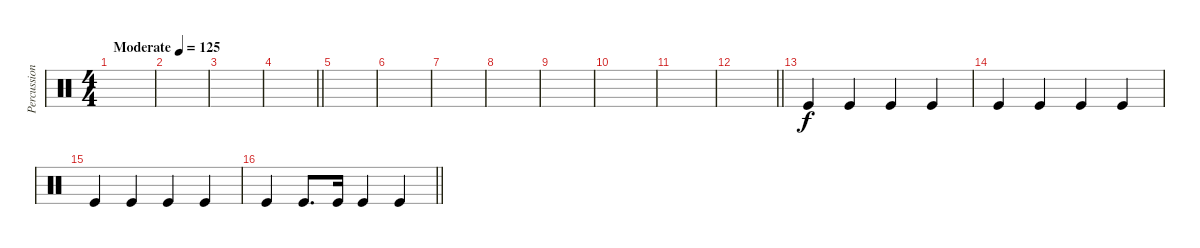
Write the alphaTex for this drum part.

\track ("Percussion" "Percussion") {instrument percussion}
\staff {score}
\articulation defaults
\ts (4 4)
\tempo (125 "Moderate")
\clef neutral
\ks c
|
|
|
\barLineRight lightlight
|
|
|
|
|
|
|
|
\barLineRight lightlight
|
"Kick (hit)".4 "Kick (hit)".4 "Kick (hit)".4 "Kick (hit)".4 |
"Kick (hit)".4 "Kick (hit)".4 "Kick (hit)".4 "Kick (hit)".4 |
"Kick (hit)".4 "Kick (hit)".4 "Kick (hit)".4 "Kick (hit)".4 |
\barLineRight lightlight "Kick (hit)".4 "Kick (hit)".8{d} "Kick (hit)".16 "Kick (hit)".4 "Kick (hit)".4
